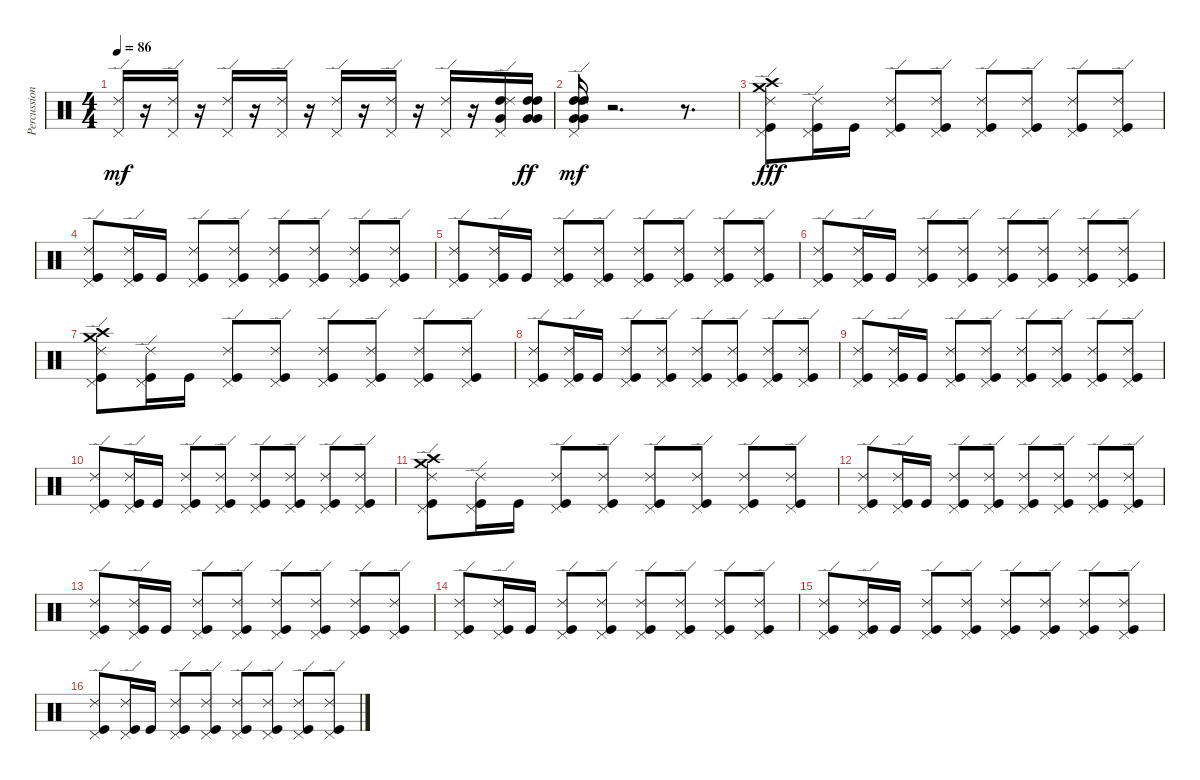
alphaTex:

\track ("Percussion" "Percussion") {instrument percussion}
\staff {score}
\articulation defaults
\ts (4 4)
\tempo 86
\clef neutral
\ks c
("Pedal Hi-Hat (hit)" "Ride (edge) 2").16{dy mf} r.16 ("Pedal Hi-Hat (hit)" "Ride (edge) 2").16 r.16 ("Pedal Hi-Hat (hit)" "Ride (edge) 2").16 r.16 ("Pedal Hi-Hat (hit)" "Ride (edge) 2").16 r.16 ("Pedal Hi-Hat (hit)" "Ride (edge) 2").16 r.16 ("Pedal Hi-Hat (hit)" "Ride (edge) 2").16 r.16 ("Pedal Hi-Hat (hit)" "Ride (edge) 2").16 r.16 ("High Tom (hit)" "Very Low Tom (hit)" "Pedal Hi-Hat (hit)" "Ride (edge) 2").16 ("High Tom (hit)" "High Tom (hit)" "Very Low Tom (hit)" "Very Low Tom (hit)").16{dy ff} |
("High Tom (hit)" "High Tom (hit)" "Very Low Tom (hit)" "Very Low Tom (hit)" "Pedal Hi-Hat (hit)" "Ride (edge) 2").16{dy mf} r.2{d} r.8{d} |
("Kick (hit)" "Ride (edge) 2" "Pedal Hi-Hat (hit)" "Crash high (hit)" "Crash medium (hit)").8{dy fff} ("Pedal Hi-Hat (hit)" "Ride (edge) 2" "Kick (hit)").16 "Kick (hit)".16 ("Pedal Hi-Hat (hit)" "Ride (edge) 2" "Kick (hit)").8 ("Ride (edge) 2" "Pedal Hi-Hat (hit)" "Kick (hit)").8 ("Pedal Hi-Hat (hit)" "Ride (edge) 2" "Kick (hit)").8 ("Pedal Hi-Hat (hit)" "Ride (edge) 2" "Kick (hit)").8 ("Pedal Hi-Hat (hit)" "Ride (edge) 2" "Kick (hit)").8 ("Pedal Hi-Hat (hit)" "Ride (edge) 2" "Kick (hit)").8 |
("Pedal Hi-Hat (hit)" "Ride (edge) 2" "Kick (hit)").8 ("Pedal Hi-Hat (hit)" "Ride (edge) 2" "Kick (hit)").16 "Kick (hit)".16 ("Pedal Hi-Hat (hit)" "Ride (edge) 2" "Kick (hit)").8 ("Pedal Hi-Hat (hit)" "Ride (edge) 2" "Kick (hit)").8 ("Pedal Hi-Hat (hit)" "Ride (edge) 2" "Kick (hit)").8 ("Pedal Hi-Hat (hit)" "Ride (edge) 2" "Kick (hit)").8 ("Pedal Hi-Hat (hit)" "Ride (edge) 2" "Kick (hit)").8 ("Pedal Hi-Hat (hit)" "Ride (edge) 2" "Kick (hit)").8 |
("Pedal Hi-Hat (hit)" "Ride (edge) 2" "Kick (hit)").8 ("Pedal Hi-Hat (hit)" "Ride (edge) 2" "Kick (hit)").16 "Kick (hit)".16 ("Pedal Hi-Hat (hit)" "Ride (edge) 2" "Kick (hit)").8 ("Pedal Hi-Hat (hit)" "Ride (edge) 2" "Kick (hit)").8 ("Pedal Hi-Hat (hit)" "Ride (edge) 2" "Kick (hit)").8 ("Pedal Hi-Hat (hit)" "Ride (edge) 2" "Kick (hit)").8 ("Pedal Hi-Hat (hit)" "Ride (edge) 2" "Kick (hit)").8 ("Pedal Hi-Hat (hit)" "Ride (edge) 2" "Kick (hit)").8 |
("Pedal Hi-Hat (hit)" "Ride (edge) 2" "Kick (hit)").8 ("Pedal Hi-Hat (hit)" "Ride (edge) 2" "Kick (hit)").16 "Kick (hit)".16 ("Pedal Hi-Hat (hit)" "Ride (edge) 2" "Kick (hit)").8 ("Pedal Hi-Hat (hit)" "Ride (edge) 2" "Kick (hit)").8 ("Pedal Hi-Hat (hit)" "Ride (edge) 2" "Kick (hit)").8 ("Pedal Hi-Hat (hit)" "Ride (edge) 2" "Kick (hit)").8 ("Pedal Hi-Hat (hit)" "Ride (edge) 2" "Kick (hit)").8 ("Pedal Hi-Hat (hit)" "Ride (edge) 2" "Kick (hit)").8 |
("Crash medium (hit)" "Crash high (hit)" "Pedal Hi-Hat (hit)" "Ride (edge) 2" "Kick (hit)").8 ("Pedal Hi-Hat (hit)" "Ride (edge) 2" "Kick (hit)").16 "Kick (hit)".16 ("Pedal Hi-Hat (hit)" "Ride (edge) 2" "Kick (hit)").8 ("Pedal Hi-Hat (hit)" "Ride (edge) 2" "Kick (hit)").8 ("Pedal Hi-Hat (hit)" "Ride (edge) 2" "Kick (hit)").8 ("Pedal Hi-Hat (hit)" "Ride (edge) 2" "Kick (hit)").8 ("Pedal Hi-Hat (hit)" "Ride (edge) 2" "Kick (hit)").8 ("Pedal Hi-Hat (hit)" "Ride (edge) 2" "Kick (hit)").8 |
("Pedal Hi-Hat (hit)" "Ride (edge) 2" "Kick (hit)").8 ("Pedal Hi-Hat (hit)" "Ride (edge) 2" "Kick (hit)").16 "Kick (hit)".16 ("Pedal Hi-Hat (hit)" "Ride (edge) 2" "Kick (hit)").8 ("Pedal Hi-Hat (hit)" "Ride (edge) 2" "Kick (hit)").8 ("Pedal Hi-Hat (hit)" "Ride (edge) 2" "Kick (hit)").8 ("Pedal Hi-Hat (hit)" "Ride (edge) 2" "Kick (hit)").8 ("Pedal Hi-Hat (hit)" "Ride (edge) 2" "Kick (hit)").8 ("Pedal Hi-Hat (hit)" "Ride (edge) 2" "Kick (hit)").8 |
("Pedal Hi-Hat (hit)" "Ride (edge) 2" "Kick (hit)").8 ("Pedal Hi-Hat (hit)" "Ride (edge) 2" "Kick (hit)").16 "Kick (hit)".16 ("Pedal Hi-Hat (hit)" "Ride (edge) 2" "Kick (hit)").8 ("Pedal Hi-Hat (hit)" "Ride (edge) 2" "Kick (hit)").8 ("Pedal Hi-Hat (hit)" "Ride (edge) 2" "Kick (hit)").8 ("Pedal Hi-Hat (hit)" "Ride (edge) 2" "Kick (hit)").8 ("Pedal Hi-Hat (hit)" "Ride (edge) 2" "Kick (hit)").8 ("Pedal Hi-Hat (hit)" "Ride (edge) 2" "Kick (hit)").8 |
("Pedal Hi-Hat (hit)" "Ride (edge) 2" "Kick (hit)").8 ("Pedal Hi-Hat (hit)" "Ride (edge) 2" "Kick (hit)").16 "Kick (hit)".16 ("Pedal Hi-Hat (hit)" "Ride (edge) 2" "Kick (hit)").8 ("Pedal Hi-Hat (hit)" "Ride (edge) 2" "Kick (hit)").8 ("Pedal Hi-Hat (hit)" "Ride (edge) 2" "Kick (hit)").8 ("Pedal Hi-Hat (hit)" "Ride (edge) 2" "Kick (hit)").8 ("Pedal Hi-Hat (hit)" "Ride (edge) 2" "Kick (hit)").8 ("Pedal Hi-Hat (hit)" "Ride (edge) 2" "Kick (hit)").8 |
("Kick (hit)" "Ride (edge) 2" "Pedal Hi-Hat (hit)" "Crash high (hit)" "Crash medium (hit)").8 ("Pedal Hi-Hat (hit)" "Ride (edge) 2" "Kick (hit)").16 "Kick (hit)".16 ("Pedal Hi-Hat (hit)" "Ride (edge) 2" "Kick (hit)").8 ("Ride (edge) 2" "Pedal Hi-Hat (hit)" "Kick (hit)").8 ("Pedal Hi-Hat (hit)" "Ride (edge) 2" "Kick (hit)").8 ("Pedal Hi-Hat (hit)" "Ride (edge) 2" "Kick (hit)").8 ("Pedal Hi-Hat (hit)" "Ride (edge) 2" "Kick (hit)").8 ("Pedal Hi-Hat (hit)" "Ride (edge) 2" "Kick (hit)").8 |
("Pedal Hi-Hat (hit)" "Ride (edge) 2" "Kick (hit)").8 ("Pedal Hi-Hat (hit)" "Ride (edge) 2" "Kick (hit)").16 "Kick (hit)".16 ("Pedal Hi-Hat (hit)" "Ride (edge) 2" "Kick (hit)").8 ("Pedal Hi-Hat (hit)" "Ride (edge) 2" "Kick (hit)").8 ("Pedal Hi-Hat (hit)" "Ride (edge) 2" "Kick (hit)").8 ("Pedal Hi-Hat (hit)" "Ride (edge) 2" "Kick (hit)").8 ("Pedal Hi-Hat (hit)" "Ride (edge) 2" "Kick (hit)").8 ("Pedal Hi-Hat (hit)" "Ride (edge) 2" "Kick (hit)").8 |
("Pedal Hi-Hat (hit)" "Ride (edge) 2" "Kick (hit)").8 ("Pedal Hi-Hat (hit)" "Ride (edge) 2" "Kick (hit)").16 "Kick (hit)".16 ("Pedal Hi-Hat (hit)" "Ride (edge) 2" "Kick (hit)").8 ("Pedal Hi-Hat (hit)" "Ride (edge) 2" "Kick (hit)").8 ("Pedal Hi-Hat (hit)" "Ride (edge) 2" "Kick (hit)").8 ("Pedal Hi-Hat (hit)" "Ride (edge) 2" "Kick (hit)").8 ("Pedal Hi-Hat (hit)" "Ride (edge) 2" "Kick (hit)").8 ("Pedal Hi-Hat (hit)" "Ride (edge) 2" "Kick (hit)").8 |
("Pedal Hi-Hat (hit)" "Ride (edge) 2" "Kick (hit)").8 ("Pedal Hi-Hat (hit)" "Ride (edge) 2" "Kick (hit)").16 "Kick (hit)".16 ("Pedal Hi-Hat (hit)" "Ride (edge) 2" "Kick (hit)").8 ("Pedal Hi-Hat (hit)" "Ride (edge) 2" "Kick (hit)").8 ("Pedal Hi-Hat (hit)" "Ride (edge) 2" "Kick (hit)").8 ("Pedal Hi-Hat (hit)" "Ride (edge) 2" "Kick (hit)").8 ("Pedal Hi-Hat (hit)" "Ride (edge) 2" "Kick (hit)").8 ("Pedal Hi-Hat (hit)" "Ride (edge) 2" "Kick (hit)").8 |
("Pedal Hi-Hat (hit)" "Ride (edge) 2" "Kick (hit)").8 ("Pedal Hi-Hat (hit)" "Ride (edge) 2" "Kick (hit)").16 "Kick (hit)".16 ("Pedal Hi-Hat (hit)" "Ride (edge) 2" "Kick (hit)").8 ("Pedal Hi-Hat (hit)" "Ride (edge) 2" "Kick (hit)").8 ("Pedal Hi-Hat (hit)" "Ride (edge) 2" "Kick (hit)").8 ("Pedal Hi-Hat (hit)" "Ride (edge) 2" "Kick (hit)").8 ("Pedal Hi-Hat (hit)" "Ride (edge) 2" "Kick (hit)").8 ("Pedal Hi-Hat (hit)" "Ride (edge) 2" "Kick (hit)").8 |
("Pedal Hi-Hat (hit)" "Ride (edge) 2" "Kick (hit)").8 ("Pedal Hi-Hat (hit)" "Ride (edge) 2" "Kick (hit)").16 "Kick (hit)".16 ("Pedal Hi-Hat (hit)" "Ride (edge) 2" "Kick (hit)").8 ("Pedal Hi-Hat (hit)" "Ride (edge) 2" "Kick (hit)").8 ("Pedal Hi-Hat (hit)" "Ride (edge) 2" "Kick (hit)").8 ("Pedal Hi-Hat (hit)" "Ride (edge) 2" "Kick (hit)").8 ("Pedal Hi-Hat (hit)" "Ride (edge) 2" "Kick (hit)").8 ("Pedal Hi-Hat (hit)" "Ride (edge) 2" "Kick (hit)").8
